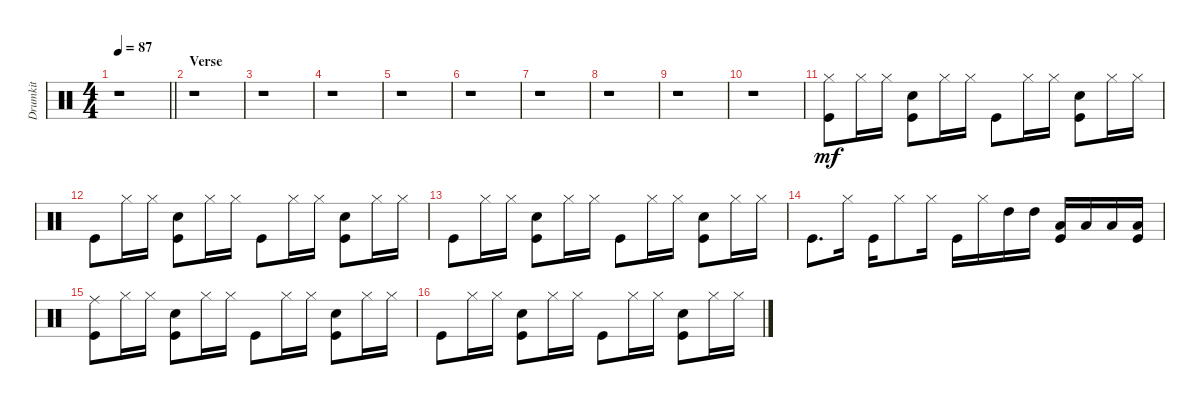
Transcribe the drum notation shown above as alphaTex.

\track ("Drumkit" "Drumkit") {instrument percussion}
\staff {score}
\articulation defaults
\ts (4 4)
\tempo 87
\clef neutral
\barLineRight lightlight
\ks c
r.1{dy mf} |
\section ("" "Verse")
r.1 |
r.1 |
r.1 |
r.1 |
r.1 |
r.1 |
r.1 |
r.1 |
r.1 |
("Kick (hit)" "Hi-Hat (closed)").8 "Hi-Hat (closed)".16 "Hi-Hat (closed)".16 ("Kick (hit)" "Snare (hit) 2").8 "Hi-Hat (closed)".16 "Hi-Hat (closed)".16 "Kick (hit)".8 "Hi-Hat (closed)".16 "Hi-Hat (closed)".16 ("Snare (hit) 2" "Kick (hit)").8 "Hi-Hat (closed)".16 "Hi-Hat (closed)".16 |
"Kick (hit)".8 "Hi-Hat (closed)".16 "Hi-Hat (closed)".16 ("Kick (hit)" "Snare (hit) 2").8 "Hi-Hat (closed)".16 "Hi-Hat (closed)".16 "Kick (hit)".8 "Hi-Hat (closed)".16 "Hi-Hat (closed)".16 ("Kick (hit)" "Snare (hit) 2").8 "Hi-Hat (closed)".16 "Hi-Hat (closed)".16 |
"Kick (hit)".8 "Hi-Hat (closed)".16 "Hi-Hat (closed)".16 ("Kick (hit)" "Snare (hit) 2").8 "Hi-Hat (closed)".16 "Hi-Hat (closed)".16 "Kick (hit)".8 "Hi-Hat (closed)".16 "Hi-Hat (closed)".16 ("Snare (hit) 2" "Kick (hit)").8 "Hi-Hat (closed)".16 "Hi-Hat (closed)".16 |
"Kick (hit)".8{d} "Hi-Hat (closed)".16 "Kick (hit)".16 "Hi-Hat (closed)".8 "Hi-Hat (closed)".16 "Kick (hit)".16 "Hi-Hat (closed)".16 "High Tom (hit)".16 "High Tom (hit)".16 ("Kick (hit)" "Low Tom (hit)").16 "Low Tom (hit)".16 "Low Floor Tom (hit)".16 ("Kick (hit)" "Low Floor Tom (hit)").16 |
("Kick (hit)" "Ride (middle)").8 "Hi-Hat (closed)".16 "Hi-Hat (closed)".16 ("Kick (hit)" "Snare (hit) 2").8 "Hi-Hat (closed)".16 "Hi-Hat (closed)".16 "Kick (hit)".8 "Hi-Hat (closed)".16 "Hi-Hat (closed)".16 ("Snare (hit) 2" "Kick (hit)").8 "Hi-Hat (closed)".16 "Hi-Hat (closed)".16 |
"Kick (hit)".8 "Hi-Hat (closed)".16 "Hi-Hat (closed)".16 ("Kick (hit)" "Snare (hit) 2").8 "Hi-Hat (closed)".16 "Hi-Hat (closed)".16 "Kick (hit)".8 "Hi-Hat (closed)".16 "Hi-Hat (closed)".16 ("Kick (hit)" "Snare (hit) 2").8 "Hi-Hat (closed)".16 "Hi-Hat (closed)".16
